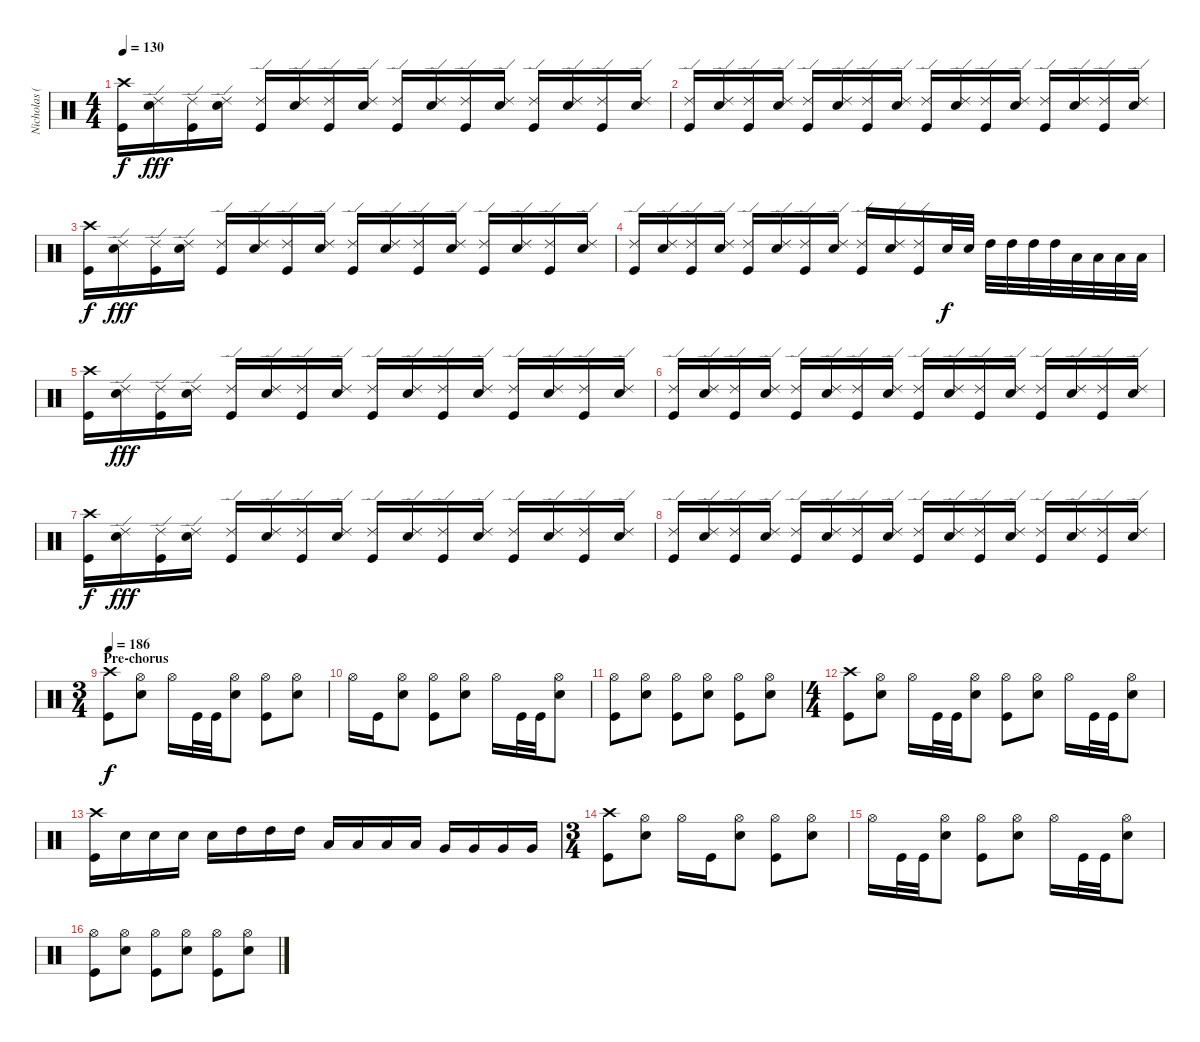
\track ("Nicholas (Drums)" "Nicholas (") {instrument percussion}
\staff {score}
\articulation defaults
\ts (4 4)
\tempo 130
\clef neutral
\ks c
("Crash high (hit)" "Kick (hit)").16{dy f} ("Ride (edge) 2" "Electric Snare (hit)").16{dy fff} ("Ride (edge) 2" "Kick (hit)").16 ("Ride (edge) 2" "Electric Snare (hit)").16 ("Ride (edge) 2" "Kick (hit)").16 ("Ride (edge) 2" "Electric Snare (hit)").16 ("Ride (edge) 2" "Kick (hit)").16 ("Ride (edge) 2" "Electric Snare (hit)").16 ("Ride (edge) 2" "Kick (hit)").16 ("Ride (edge) 2" "Electric Snare (hit)").16 ("Ride (edge) 2" "Kick (hit)").16 ("Ride (edge) 2" "Electric Snare (hit)").16 ("Ride (edge) 2" "Kick (hit)").16 ("Ride (edge) 2" "Electric Snare (hit)").16 ("Ride (edge) 2" "Kick (hit)").16 ("Ride (edge) 2" "Electric Snare (hit)").16 |
("Ride (edge) 2" "Kick (hit)").16 ("Ride (edge) 2" "Electric Snare (hit)").16 ("Ride (edge) 2" "Kick (hit)").16 ("Ride (edge) 2" "Electric Snare (hit)").16 ("Ride (edge) 2" "Kick (hit)").16 ("Ride (edge) 2" "Electric Snare (hit)").16 ("Ride (edge) 2" "Kick (hit)").16 ("Ride (edge) 2" "Electric Snare (hit)").16 ("Ride (edge) 2" "Kick (hit)").16 ("Ride (edge) 2" "Electric Snare (hit)").16 ("Ride (edge) 2" "Kick (hit)").16 ("Ride (edge) 2" "Electric Snare (hit)").16 ("Ride (edge) 2" "Kick (hit)").16 ("Ride (edge) 2" "Electric Snare (hit)").16 ("Ride (edge) 2" "Kick (hit)").16 ("Ride (edge) 2" "Electric Snare (hit)").16 |
("Crash high (hit)" "Kick (hit)").16{dy f} ("Ride (edge) 2" "Electric Snare (hit)").16{dy fff} ("Ride (edge) 2" "Kick (hit)").16 ("Ride (edge) 2" "Electric Snare (hit)").16 ("Ride (edge) 2" "Kick (hit)").16 ("Ride (edge) 2" "Electric Snare (hit)").16 ("Ride (edge) 2" "Kick (hit)").16 ("Ride (edge) 2" "Electric Snare (hit)").16 ("Ride (edge) 2" "Kick (hit)").16 ("Ride (edge) 2" "Electric Snare (hit)").16 ("Ride (edge) 2" "Kick (hit)").16 ("Ride (edge) 2" "Electric Snare (hit)").16 ("Ride (edge) 2" "Kick (hit)").16 ("Ride (edge) 2" "Electric Snare (hit)").16 ("Ride (edge) 2" "Kick (hit)").16 ("Ride (edge) 2" "Electric Snare (hit)").16 |
("Ride (edge) 2" "Kick (hit)").16 ("Ride (edge) 2" "Electric Snare (hit)").16 ("Ride (edge) 2" "Kick (hit)").16 ("Ride (edge) 2" "Electric Snare (hit)").16 ("Ride (edge) 2" "Kick (hit)").16 ("Ride (edge) 2" "Electric Snare (hit)").16 ("Ride (edge) 2" "Kick (hit)").16 ("Ride (edge) 2" "Electric Snare (hit)").16 ("Ride (edge) 2" "Kick (hit)").16 ("Ride (edge) 2" "Electric Snare (hit)").16 ("Ride (edge) 2" "Kick (hit)").16 "Electric Snare (hit)".32{dy f} "Electric Snare (hit)".32 "High Tom (hit)".32 "High Tom (hit)".32 "High Tom (hit)".32 "High Tom (hit)".32 "Low Tom (hit)".32 "Low Tom (hit)".32 "Low Tom (hit)".32 "Low Tom (hit)".32 |
("Crash high (hit)" "Kick (hit)").16 ("Ride (edge) 2" "Electric Snare (hit)").16{dy fff} ("Ride (edge) 2" "Kick (hit)").16 ("Ride (edge) 2" "Electric Snare (hit)").16 ("Ride (edge) 2" "Kick (hit)").16 ("Ride (edge) 2" "Electric Snare (hit)").16 ("Ride (edge) 2" "Kick (hit)").16 ("Ride (edge) 2" "Electric Snare (hit)").16 ("Ride (edge) 2" "Kick (hit)").16 ("Ride (edge) 2" "Electric Snare (hit)").16 ("Ride (edge) 2" "Kick (hit)").16 ("Ride (edge) 2" "Electric Snare (hit)").16 ("Ride (edge) 2" "Kick (hit)").16 ("Ride (edge) 2" "Electric Snare (hit)").16 ("Ride (edge) 2" "Kick (hit)").16 ("Ride (edge) 2" "Electric Snare (hit)").16 |
("Ride (edge) 2" "Kick (hit)").16 ("Ride (edge) 2" "Electric Snare (hit)").16 ("Ride (edge) 2" "Kick (hit)").16 ("Ride (edge) 2" "Electric Snare (hit)").16 ("Ride (edge) 2" "Kick (hit)").16 ("Ride (edge) 2" "Electric Snare (hit)").16 ("Ride (edge) 2" "Kick (hit)").16 ("Ride (edge) 2" "Electric Snare (hit)").16 ("Ride (edge) 2" "Kick (hit)").16 ("Ride (edge) 2" "Electric Snare (hit)").16 ("Ride (edge) 2" "Kick (hit)").16 ("Ride (edge) 2" "Electric Snare (hit)").16 ("Ride (edge) 2" "Kick (hit)").16 ("Ride (edge) 2" "Electric Snare (hit)").16 ("Ride (edge) 2" "Kick (hit)").16 ("Ride (edge) 2" "Electric Snare (hit)").16 |
("Crash high (hit)" "Kick (hit)").16{dy f} ("Ride (edge) 2" "Electric Snare (hit)").16{dy fff} ("Ride (edge) 2" "Kick (hit)").16 ("Ride (edge) 2" "Electric Snare (hit)").16 ("Ride (edge) 2" "Kick (hit)").16 ("Ride (edge) 2" "Electric Snare (hit)").16 ("Ride (edge) 2" "Kick (hit)").16 ("Ride (edge) 2" "Electric Snare (hit)").16 ("Ride (edge) 2" "Kick (hit)").16 ("Ride (edge) 2" "Electric Snare (hit)").16 ("Ride (edge) 2" "Kick (hit)").16 ("Ride (edge) 2" "Electric Snare (hit)").16 ("Ride (edge) 2" "Kick (hit)").16 ("Ride (edge) 2" "Electric Snare (hit)").16 ("Ride (edge) 2" "Kick (hit)").16 ("Ride (edge) 2" "Electric Snare (hit)").16 |
("Ride (edge) 2" "Kick (hit)").16 ("Ride (edge) 2" "Electric Snare (hit)").16 ("Ride (edge) 2" "Kick (hit)").16 ("Ride (edge) 2" "Electric Snare (hit)").16 ("Ride (edge) 2" "Kick (hit)").16 ("Ride (edge) 2" "Electric Snare (hit)").16 ("Ride (edge) 2" "Kick (hit)").16 ("Ride (edge) 2" "Electric Snare (hit)").16 ("Ride (edge) 2" "Kick (hit)").16 ("Ride (edge) 2" "Electric Snare (hit)").16 ("Ride (edge) 2" "Kick (hit)").16 ("Ride (edge) 2" "Electric Snare (hit)").16 ("Ride (edge) 2" "Kick (hit)").16 ("Ride (edge) 2" "Electric Snare (hit)").16 ("Ride (edge) 2" "Kick (hit)").16 ("Ride (edge) 2" "Electric Snare (hit)").16 |
\ts (3 4)
\section ("" "Pre-chorus")
\tempo 186
("Crash high (hit)" "Kick (hit)").8{dy f} ("Hi-Hat (open)" "Electric Snare (hit)").8 "Hi-Hat (open)".16 "Kick (hit)".32 "Kick (hit)".32 ("Hi-Hat (open)" "Electric Snare (hit)").8 ("Hi-Hat (open)" "Kick (hit)").8 ("Hi-Hat (open)" "Electric Snare (hit)").8 |
"Hi-Hat (open)".16 "Kick (hit)".16 ("Hi-Hat (open)" "Electric Snare (hit)").8 ("Hi-Hat (open)" "Kick (hit)").8 ("Hi-Hat (open)" "Electric Snare (hit)").8 "Hi-Hat (open)".16 "Kick (hit)".32 "Kick (hit)".32 ("Hi-Hat (open)" "Electric Snare (hit)").8 |
("Hi-Hat (open)" "Kick (hit)").8 ("Hi-Hat (open)" "Electric Snare (hit)").8 ("Hi-Hat (open)" "Kick (hit)").8 ("Hi-Hat (open)" "Electric Snare (hit)").8 ("Hi-Hat (open)" "Kick (hit)").8 ("Hi-Hat (open)" "Electric Snare (hit)").8 |
\ts (4 4)
("Crash high (hit)" "Kick (hit)").8 ("Hi-Hat (open)" "Electric Snare (hit)").8 "Hi-Hat (open)".16 "Kick (hit)".32 "Kick (hit)".32 ("Hi-Hat (open)" "Electric Snare (hit)").8 ("Hi-Hat (open)" "Kick (hit)").8 ("Hi-Hat (open)" "Electric Snare (hit)").8 "Hi-Hat (open)".16 "Kick (hit)".32 "Kick (hit)".32 ("Hi-Hat (open)" "Electric Snare (hit)").8 |
("Crash high (hit)" "Kick (hit)").16 "Electric Snare (hit)".16 "Electric Snare (hit)".16 "Electric Snare (hit)".16 "Electric Snare (hit)".16 "High Tom (hit)".16 "High Tom (hit)".16 "High Tom (hit)".16 "Low Tom (hit)".16 "Low Tom (hit)".16 "Low Tom (hit)".16 "Low Tom (hit)".16 "Very Low Tom (hit)".16 "Very Low Tom (hit)".16 "Very Low Tom (hit)".16 "Very Low Tom (hit)".16 |
\ts (3 4)
("Crash high (hit)" "Kick (hit)").8 ("Hi-Hat (open)" "Electric Snare (hit)").8 "Hi-Hat (open)".16 "Kick (hit)".16 ("Hi-Hat (open)" "Electric Snare (hit)").8 ("Hi-Hat (open)" "Kick (hit)").8 ("Hi-Hat (open)" "Electric Snare (hit)").8 |
"Hi-Hat (open)".16 "Kick (hit)".32 "Kick (hit)".32 ("Hi-Hat (open)" "Electric Snare (hit)").8 ("Hi-Hat (open)" "Kick (hit)").8 ("Hi-Hat (open)" "Electric Snare (hit)").8 "Hi-Hat (open)".16 "Kick (hit)".32 "Kick (hit)".32 ("Hi-Hat (open)" "Electric Snare (hit)").8 |
("Hi-Hat (open)" "Kick (hit)").8 ("Hi-Hat (open)" "Electric Snare (hit)").8 ("Hi-Hat (open)" "Kick (hit)").8 ("Hi-Hat (open)" "Electric Snare (hit)").8 ("Hi-Hat (open)" "Kick (hit)").8 ("Hi-Hat (open)" "Electric Snare (hit)").8
